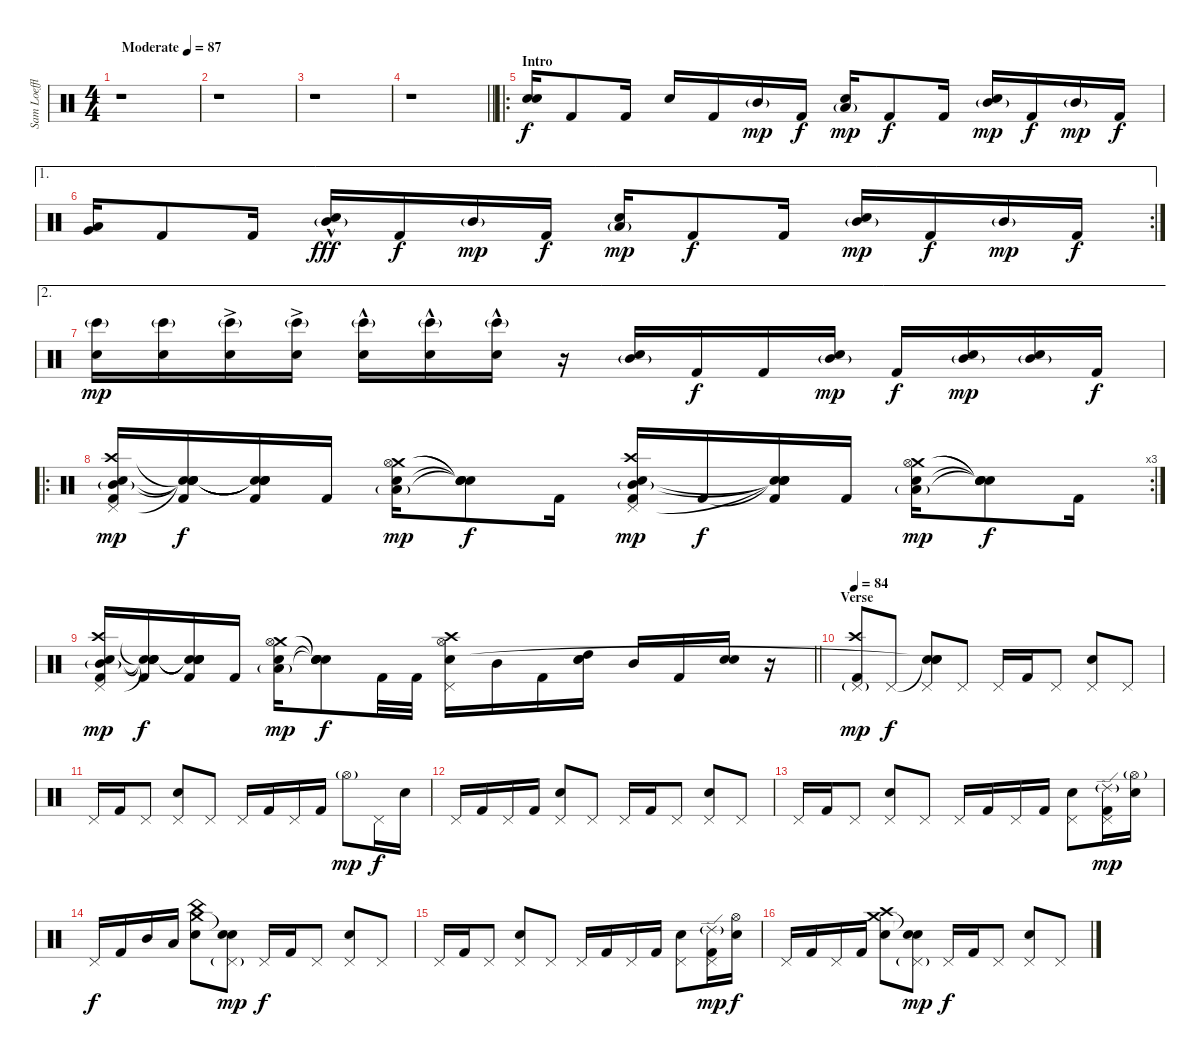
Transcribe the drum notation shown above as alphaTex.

\track ("Sam Loeffler- Drums" "Sam Loeffl") {instrument percussion}
\staff {score}
\articulation defaults
\ts (4 4)
\tempo (87 "Moderate")
\clef neutral
\ks c
r.1{dy f} |
r.1 |
r.1 |
\barLineRight lightlight
r.1 |
\ro
\section ("" "Intro")
("Electric Snare (hit)" "Snare (hit) 2").16 "Kick (hit) 2".8 "Kick (hit) 2".16 "Electric Snare (hit)".16 "Kick (hit) 2".16 "Mid Tom (hit)"{g}.16{dy mp} "Kick (hit) 2".16{dy f} ("Low Tom (hit)"{g} "Electric Snare (hit)").16{dy mp} "Kick (hit) 2".8{dy f} "Kick (hit) 2".16 ("Mid Tom (hit)"{g} "Electric Snare (hit)").16{dy mp} "Kick (hit) 2".16{dy f} "Mid Tom (hit)"{g}.16{dy mp} "Kick (hit) 2".16{dy f} |
\ae 1
\rc 2
("Low Tom (hit)" "Very Low Tom (hit)").16 "Kick (hit) 2".8 "Kick (hit) 2".16 ("Mid Tom (hit)"{g} "Electric Snare (hit)"{hac}).16{dy fff} "Kick (hit) 2".16{dy f} "Mid Tom (hit)"{g}.16{dy mp} "Kick (hit) 2".16{dy f} ("Low Tom (hit)"{g} "Electric Snare (hit)").16{dy mp} "Kick (hit) 2".8{dy f} "Kick (hit) 2".16 ("Mid Tom (hit)"{g} "Electric Snare (hit)").16{dy mp} "Kick (hit) 2".16{dy f} "Mid Tom (hit)"{g}.16{dy mp} "Kick (hit) 2".16{dy f} |
\ae 2
("Electric Snare (hit)" "Bongo High (hit)"{g}).16{dy mp} ("Electric Snare (hit)" "Bongo High (hit)"{g}).16 ("Electric Snare (hit)"{ac} "Bongo High (hit)"{g}).16 ("Electric Snare (hit)"{ac} "Bongo High (hit)"{g}).16 ("Electric Snare (hit)"{hac} "Bongo High (hit)"{g}).16 ("Electric Snare (hit)"{hac} "Bongo High (hit)"{g}).16 ("Electric Snare (hit)"{hac} "Bongo High (hit)"{g}).16 r.16 ("Mid Tom (hit)"{g} "Electric Snare (hit)").16 "Kick (hit) 2".16{dy f} "Kick (hit) 2".16 ("Mid Tom (hit)"{g} "Electric Snare (hit)").16{dy mp} "Kick (hit) 2".16{dy f} ("Mid Tom (hit)"{g} "Electric Snare (hit)").16{dy mp} ("Mid Tom (hit)"{g} "Electric Snare (hit)").16 "Kick (hit) 2".16{dy f} |
\ro
\rc 3
("Crash high (hit)" "Mid Tom (hit)"{g} "Pedal Hi-Hat (hit)" "Electric Snare (hit)" "Kick (hit) 2").16{dy mp} ("Snare (hit)"{t} "Snare (hit)"{t} "Snare (hit)"{t} "Snare (hit)"{t} "Kick (hit) 2").16{dy f} ("Snare (hit)"{t} "Snare (hit)"{t} "Snare (hit)"{t} "Snare (hit)"{t} "Kick (hit) 2").16 "Kick (hit) 2".16 ("Crash medium (hit)" "Hi-Hat (open)" "Low Tom (hit)"{g} "Electric Snare (hit)").16{dy mp} ("Snare (hit)"{t} "Snare (hit)"{t} "Snare (hit)"{t} "Snare (hit)"{t}).8{dy f} "Kick (hit) 2".16 ("Crash high (hit)" "Mid Tom (hit)"{g} "Pedal Hi-Hat (hit)" "Electric Snare (hit)" "Kick (hit) 2").16{dy mp} "Kick (hit) 2".16{dy f} ("Snare (hit)"{t} "Snare (hit)"{t} "Snare (hit)"{t} "Snare (hit)"{t} "Kick (hit) 2").16 "Kick (hit) 2".16 ("Crash medium (hit)" "Hi-Hat (open)" "Low Tom (hit)"{g} "Electric Snare (hit)").16{dy mp} ("Snare (hit)"{t} "Snare (hit)"{t} "Snare (hit)"{t} "Snare (hit)"{t}).8{dy f} "Kick (hit) 2".16 |
\barLineRight lightlight
("Crash high (hit)" "Mid Tom (hit)"{g} "Pedal Hi-Hat (hit)" "Electric Snare (hit)" "Kick (hit) 2").16{dy mp} ("Snare (hit)"{t} "Snare (hit)"{t} "Snare (hit)"{t} "Snare (hit)"{t} "Kick (hit) 2").16{dy f} ("Snare (hit)"{t} "Snare (hit)"{t} "Snare (hit)"{t} "Snare (hit)"{t} "Kick (hit) 2").16 "Kick (hit) 2".16 ("Crash medium (hit)" "Hi-Hat (open)" "Low Tom (hit)"{g} "Electric Snare (hit)").16{dy mp} ("Snare (hit)"{t} "Snare (hit)"{t} "Snare (hit)"{t} "Snare (hit)"{t}).8{dy f} "Kick (hit) 2".32 "Kick (hit) 2".32 ("Crash high (hit)" "Hi-Hat (open)" "Pedal Hi-Hat (hit)" "Electric Snare (hit)").16 "Mid Tom (hit)".16 "Kick (hit) 2".16 ("High Tom (hit)" "Electric Snare (hit)" "Electric Snare (hit)").16 "Mid Tom (hit)".16 "Kick (hit) 2".16 ("Electric Snare (hit)" "Electric Snare (hit)").16 r.16 |
\section ("" "Verse")
\tempo 84
("Crash high (hit)" "Pedal Hi-Hat (hit)"{g} "Kick (hit) 2").8{dy mp} "Pedal Hi-Hat (hit)".8{dy f} ("Snare (hit)"{t} "Pedal Hi-Hat (hit)" "Electric Snare (hit)" "Snare (hit)"{t}).8 "Pedal Hi-Hat (hit)".8 "Pedal Hi-Hat (hit)".16 "Kick (hit) 2".16 "Pedal Hi-Hat (hit)".8 ("Pedal Hi-Hat (hit)" "Electric Snare (hit)").8 "Pedal Hi-Hat (hit)".8 |
"Pedal Hi-Hat (hit)".16 "Kick (hit) 2".16 "Pedal Hi-Hat (hit)".8 ("Pedal Hi-Hat (hit)" "Electric Snare (hit)").8 "Pedal Hi-Hat (hit)".8 "Pedal Hi-Hat (hit)".16 "Kick (hit) 2".16 "Pedal Hi-Hat (hit)".16 "Kick (hit) 2".16 "Hi-Hat (open)"{g}.8{dy mp} "Pedal Hi-Hat (hit)".16{dy f} "Electric Snare (hit)".16 |
"Pedal Hi-Hat (hit)".16 "Kick (hit) 2".16 "Pedal Hi-Hat (hit)".16 "Kick (hit) 2".16 ("Pedal Hi-Hat (hit)" "Electric Snare (hit)").8 "Pedal Hi-Hat (hit)".8 "Pedal Hi-Hat (hit)".16 "Kick (hit) 2".16 "Pedal Hi-Hat (hit)".8 ("Pedal Hi-Hat (hit)" "Electric Snare (hit)").8 "Pedal Hi-Hat (hit)".8 |
"Pedal Hi-Hat (hit)".16 "Kick (hit) 2".16 "Pedal Hi-Hat (hit)".8 ("Pedal Hi-Hat (hit)" "Electric Snare (hit)").8 "Pedal Hi-Hat (hit)".8 "Pedal Hi-Hat (hit)".16 "Kick (hit) 2".16 "Pedal Hi-Hat (hit)".16 "Kick (hit) 2".16 ("Pedal Hi-Hat (hit)" "Electric Snare (hit)").8 ("Ride (edge) 2"{g} "Pedal Hi-Hat (hit)" "Kick (hit) 2").16{dy mp} ("Hi-Hat (open)"{g} "Electric Snare (hit)").16 |
"Pedal Hi-Hat (hit)".16{dy f} "Kick (hit) 2".16 "Mid Tom (hit)".16 "Low Floor Tom (hit)".16 ("Crash medium (hit)" "China (hit)" "Electric Snare (hit)").8 ("Snare (hit)"{t} "Pedal Hi-Hat (hit)"{g} "Snare (hit)"{t}).8{dy mp} "Pedal Hi-Hat (hit)".16{dy f} "Kick (hit) 2".16 "Pedal Hi-Hat (hit)".8 ("Pedal Hi-Hat (hit)" "Electric Snare (hit)").8 "Pedal Hi-Hat (hit)".8 |
"Pedal Hi-Hat (hit)".16 "Kick (hit) 2".16 "Pedal Hi-Hat (hit)".8 ("Pedal Hi-Hat (hit)" "Electric Snare (hit)").8 "Pedal Hi-Hat (hit)".8 "Pedal Hi-Hat (hit)".16 "Kick (hit) 2".16 "Pedal Hi-Hat (hit)".16 "Kick (hit) 2".16 ("Pedal Hi-Hat (hit)" "Electric Snare (hit)").8 ("Ride (edge) 2"{g} "Pedal Hi-Hat (hit)" "Kick (hit) 2").16{dy mp} ("Hi-Hat (open)" "Electric Snare (hit)").16{dy f} |
"Pedal Hi-Hat (hit)".16 "Kick (hit) 2".16 "Pedal Hi-Hat (hit)".16 "Kick (hit) 2".16 ("Crash medium (hit)" "Crash high (hit)" "Electric Snare (hit)").8 ("Snare (hit)"{t} "Pedal Hi-Hat (hit)"{g} "Snare (hit)"{t}).8{dy mp} "Pedal Hi-Hat (hit)".16{dy f} "Kick (hit) 2".16 "Pedal Hi-Hat (hit)".8 ("Pedal Hi-Hat (hit)" "Electric Snare (hit)").8 "Pedal Hi-Hat (hit)".8
